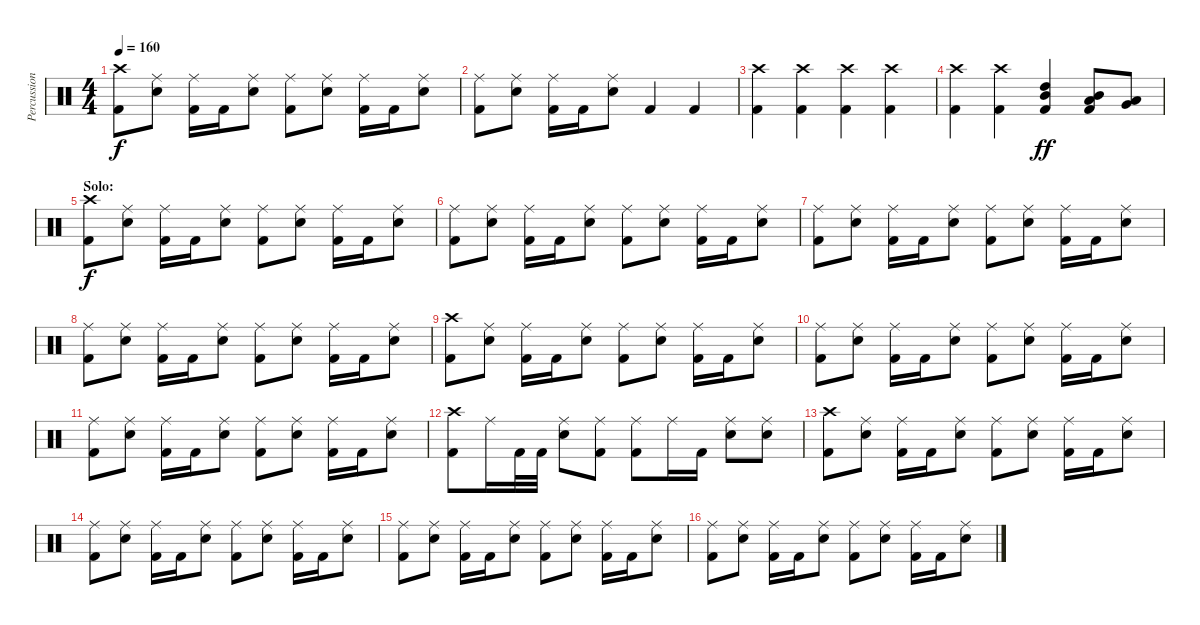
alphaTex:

\track ("Percussion" "Percussion") {instrument percussion}
\staff {score}
\articulation defaults
\ts (4 4)
\tempo 160
\clef neutral
\ks c
("Crash high (hit)" "Kick (hit) 2").8{dy f} ("Ride (middle)" "Electric Snare (hit)").8 ("Ride (middle)" "Kick (hit) 2").16 "Kick (hit) 2".16 ("Ride (middle)" "Electric Snare (hit)").8 ("Ride (middle)" "Kick (hit) 2").8 ("Ride (middle)" "Electric Snare (hit)").8 ("Ride (middle)" "Kick (hit) 2").16 "Kick (hit) 2".16 ("Ride (middle)" "Electric Snare (hit)").8 |
("Ride (middle)" "Kick (hit) 2").8 ("Ride (middle)" "Electric Snare (hit)").8 ("Ride (middle)" "Kick (hit) 2").16 "Kick (hit) 2".16 ("Ride (middle)" "Electric Snare (hit)").8 "Kick (hit) 2".4 "Kick (hit) 2".4 |
("Crash high (hit)" "Kick (hit) 2").4 ("Crash high (hit)" "Kick (hit) 2").4 ("Crash high (hit)" "Kick (hit) 2").4 ("Crash high (hit)" "Kick (hit) 2").4 |
("Crash high (hit)" "Kick (hit) 2").4 ("Crash high (hit)" "Kick (hit) 2").4 ("High Tom (hit)" "Mid Tom (hit)" "Kick (hit) 2").4{dy ff} ("Mid Tom (hit)" "Low Tom (hit)" "Kick (hit) 2").8 ("Low Tom (hit)" "Very Low Tom (hit)").8 |
\section ("" "Solo:")
("Crash high (hit)" "Kick (hit) 2").8{dy f} ("Ride (middle)" "Electric Snare (hit)").8 ("Ride (middle)" "Kick (hit) 2").16 "Kick (hit) 2".16 ("Ride (middle)" "Electric Snare (hit)").8 ("Ride (middle)" "Kick (hit) 2").8 ("Ride (middle)" "Electric Snare (hit)").8 ("Ride (middle)" "Kick (hit) 2").16 "Kick (hit) 2".16 ("Ride (middle)" "Electric Snare (hit)").8 |
("Ride (middle)" "Kick (hit) 2").8 ("Ride (middle)" "Electric Snare (hit)").8 ("Ride (middle)" "Kick (hit) 2").16 "Kick (hit) 2".16 ("Ride (middle)" "Electric Snare (hit)").8 ("Ride (middle)" "Kick (hit) 2").8 ("Ride (middle)" "Electric Snare (hit)").8 ("Ride (middle)" "Kick (hit) 2").16 "Kick (hit) 2".16 ("Ride (middle)" "Electric Snare (hit)").8 |
("Ride (middle)" "Kick (hit) 2").8 ("Ride (middle)" "Electric Snare (hit)").8 ("Ride (middle)" "Kick (hit) 2").16 "Kick (hit) 2".16 ("Ride (middle)" "Electric Snare (hit)").8 ("Ride (middle)" "Kick (hit) 2").8 ("Ride (middle)" "Electric Snare (hit)").8 ("Ride (middle)" "Kick (hit) 2").16 "Kick (hit) 2".16 ("Ride (middle)" "Electric Snare (hit)").8 |
("Ride (middle)" "Kick (hit) 2").8 ("Ride (middle)" "Electric Snare (hit)").8 ("Ride (middle)" "Kick (hit) 2").16 "Kick (hit) 2".16 ("Ride (middle)" "Electric Snare (hit)").8 ("Ride (middle)" "Kick (hit) 2").8 ("Ride (middle)" "Electric Snare (hit)").8 ("Ride (middle)" "Kick (hit) 2").16 "Kick (hit) 2".16 ("Ride (middle)" "Electric Snare (hit)").8 |
("Crash high (hit)" "Kick (hit) 2").8 ("Ride (middle)" "Electric Snare (hit)").8 ("Ride (middle)" "Kick (hit) 2").16 "Kick (hit) 2".16 ("Ride (middle)" "Electric Snare (hit)").8 ("Ride (middle)" "Kick (hit) 2").8 ("Ride (middle)" "Electric Snare (hit)").8 ("Ride (middle)" "Kick (hit) 2").16 "Kick (hit) 2".16 ("Ride (middle)" "Electric Snare (hit)").8 |
("Ride (middle)" "Kick (hit) 2").8 ("Ride (middle)" "Electric Snare (hit)").8 ("Ride (middle)" "Kick (hit) 2").16 "Kick (hit) 2".16 ("Ride (middle)" "Electric Snare (hit)").8 ("Ride (middle)" "Kick (hit) 2").8 ("Ride (middle)" "Electric Snare (hit)").8 ("Ride (middle)" "Kick (hit) 2").16 "Kick (hit) 2".16 ("Ride (middle)" "Electric Snare (hit)").8 |
("Ride (middle)" "Kick (hit) 2").8 ("Ride (middle)" "Electric Snare (hit)").8 ("Ride (middle)" "Kick (hit) 2").16 "Kick (hit) 2".16 ("Ride (middle)" "Electric Snare (hit)").8 ("Ride (middle)" "Kick (hit) 2").8 ("Ride (middle)" "Electric Snare (hit)").8 ("Ride (middle)" "Kick (hit) 2").16 "Kick (hit) 2".16 ("Ride (middle)" "Electric Snare (hit)").8 |
("Crash high (hit)" "Kick (hit) 2").8 "Ride (middle)".16 "Kick (hit) 2".32 "Kick (hit) 2".32 ("Ride (middle)" "Electric Snare (hit)").8 ("Ride (middle)" "Kick (hit) 2").8 ("Ride (middle)" "Kick (hit) 2").8 "Ride (middle)".16 "Kick (hit) 2".16 ("Ride (middle)" "Electric Snare (hit)").8 ("Ride (middle)" "Electric Snare (hit)").8 |
("Crash high (hit)" "Kick (hit) 2").8 ("Ride (middle)" "Electric Snare (hit)").8 ("Ride (middle)" "Kick (hit) 2").16 "Kick (hit) 2".16 ("Ride (middle)" "Electric Snare (hit)").8 ("Ride (middle)" "Kick (hit) 2").8 ("Ride (middle)" "Electric Snare (hit)").8 ("Ride (middle)" "Kick (hit) 2").16 "Kick (hit) 2".16 ("Ride (middle)" "Electric Snare (hit)").8 |
("Ride (middle)" "Kick (hit) 2").8 ("Ride (middle)" "Electric Snare (hit)").8 ("Ride (middle)" "Kick (hit) 2").16 "Kick (hit) 2".16 ("Ride (middle)" "Electric Snare (hit)").8 ("Ride (middle)" "Kick (hit) 2").8 ("Ride (middle)" "Electric Snare (hit)").8 ("Ride (middle)" "Kick (hit) 2").16 "Kick (hit) 2".16 ("Ride (middle)" "Electric Snare (hit)").8 |
("Ride (middle)" "Kick (hit) 2").8 ("Ride (middle)" "Electric Snare (hit)").8 ("Ride (middle)" "Kick (hit) 2").16 "Kick (hit) 2".16 ("Ride (middle)" "Electric Snare (hit)").8 ("Ride (middle)" "Kick (hit) 2").8 ("Ride (middle)" "Electric Snare (hit)").8 ("Ride (middle)" "Kick (hit) 2").16 "Kick (hit) 2".16 ("Ride (middle)" "Electric Snare (hit)").8 |
("Ride (middle)" "Kick (hit) 2").8 ("Ride (middle)" "Electric Snare (hit)").8 ("Ride (middle)" "Kick (hit) 2").16 "Kick (hit) 2".16 ("Ride (middle)" "Electric Snare (hit)").8 ("Ride (middle)" "Kick (hit) 2").8 ("Ride (middle)" "Electric Snare (hit)").8 ("Ride (middle)" "Kick (hit) 2").16 "Kick (hit) 2".16 ("Ride (middle)" "Electric Snare (hit)").8
